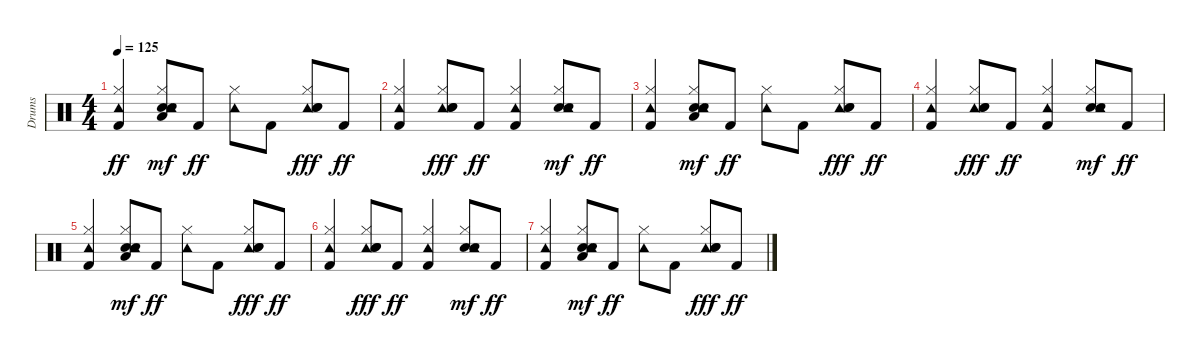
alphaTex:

\track ("Drums" "Drums") {instrument percussion}
\staff {score}
\articulation defaults
\ts (4 4)
\tempo 125
\clef neutral
\ks c
("Tambourine (hit)" "Hi-Hat (closed)" "Kick (hit) 2").4{dy ff} ("Hi-Hat (closed)" "Hand Clap (hit)" "Low Tom (hit)" "Snare (hit) 2" "Tambourine (hit)").8{dy mf} "Kick (hit) 2".8{dy ff} ("Tambourine (hit)" "Hi-Hat (closed)").8 "Kick (hit) 2".8 ("Tambourine (hit)" "Hi-Hat (closed)" "Hand Clap (hit)" "Snare (hit) 2").8{dy fff} "Kick (hit) 2".8{dy ff} |
("Tambourine (hit)" "Hi-Hat (closed)" "Kick (hit) 2").4 ("Tambourine (hit)" "Hi-Hat (closed)" "Hand Clap (hit)" "Snare (hit) 2").8{dy fff} "Kick (hit) 2".8{dy ff} ("Tambourine (hit)" "Hi-Hat (closed)" "Kick (hit) 2").4 ("Hi-Hat (closed)" "Hand Clap (hit)" "Snare (hit) 2" "Tambourine (hit)").8{dy mf} "Kick (hit) 2".8{dy ff} |
("Tambourine (hit)" "Hi-Hat (closed)" "Kick (hit) 2").4 ("Hi-Hat (closed)" "Hand Clap (hit)" "Low Tom (hit)" "Snare (hit) 2" "Tambourine (hit)").8{dy mf} "Kick (hit) 2".8{dy ff} ("Tambourine (hit)" "Hi-Hat (closed)").8 "Kick (hit) 2".8 ("Tambourine (hit)" "Hi-Hat (closed)" "Hand Clap (hit)" "Snare (hit) 2").8{dy fff} "Kick (hit) 2".8{dy ff} |
("Tambourine (hit)" "Hi-Hat (closed)" "Kick (hit) 2").4 ("Tambourine (hit)" "Hi-Hat (closed)" "Hand Clap (hit)" "Snare (hit) 2").8{dy fff} "Kick (hit) 2".8{dy ff} ("Tambourine (hit)" "Hi-Hat (closed)" "Kick (hit) 2").4 ("Hi-Hat (closed)" "Hand Clap (hit)" "Snare (hit) 2" "Tambourine (hit)").8{dy mf} "Kick (hit) 2".8{dy ff} |
("Tambourine (hit)" "Hi-Hat (closed)" "Kick (hit) 2").4 ("Hi-Hat (closed)" "Hand Clap (hit)" "Low Tom (hit)" "Snare (hit) 2" "Tambourine (hit)").8{dy mf} "Kick (hit) 2".8{dy ff} ("Tambourine (hit)" "Hi-Hat (closed)").8 "Kick (hit) 2".8 ("Tambourine (hit)" "Hi-Hat (closed)" "Hand Clap (hit)" "Snare (hit) 2").8{dy fff} "Kick (hit) 2".8{dy ff} |
("Tambourine (hit)" "Hi-Hat (closed)" "Kick (hit) 2").4 ("Tambourine (hit)" "Hi-Hat (closed)" "Hand Clap (hit)" "Snare (hit) 2").8{dy fff} "Kick (hit) 2".8{dy ff} ("Tambourine (hit)" "Hi-Hat (closed)" "Kick (hit) 2").4 ("Hi-Hat (closed)" "Hand Clap (hit)" "Snare (hit) 2" "Tambourine (hit)").8{dy mf} "Kick (hit) 2".8{dy ff} |
("Tambourine (hit)" "Hi-Hat (closed)" "Kick (hit) 2").4 ("Hi-Hat (closed)" "Hand Clap (hit)" "Low Tom (hit)" "Snare (hit) 2" "Tambourine (hit)").8{dy mf} "Kick (hit) 2".8{dy ff} ("Tambourine (hit)" "Hi-Hat (closed)").8 "Kick (hit) 2".8 ("Tambourine (hit)" "Hi-Hat (closed)" "Hand Clap (hit)" "Snare (hit) 2").8{dy fff} "Kick (hit) 2".8{dy ff}
